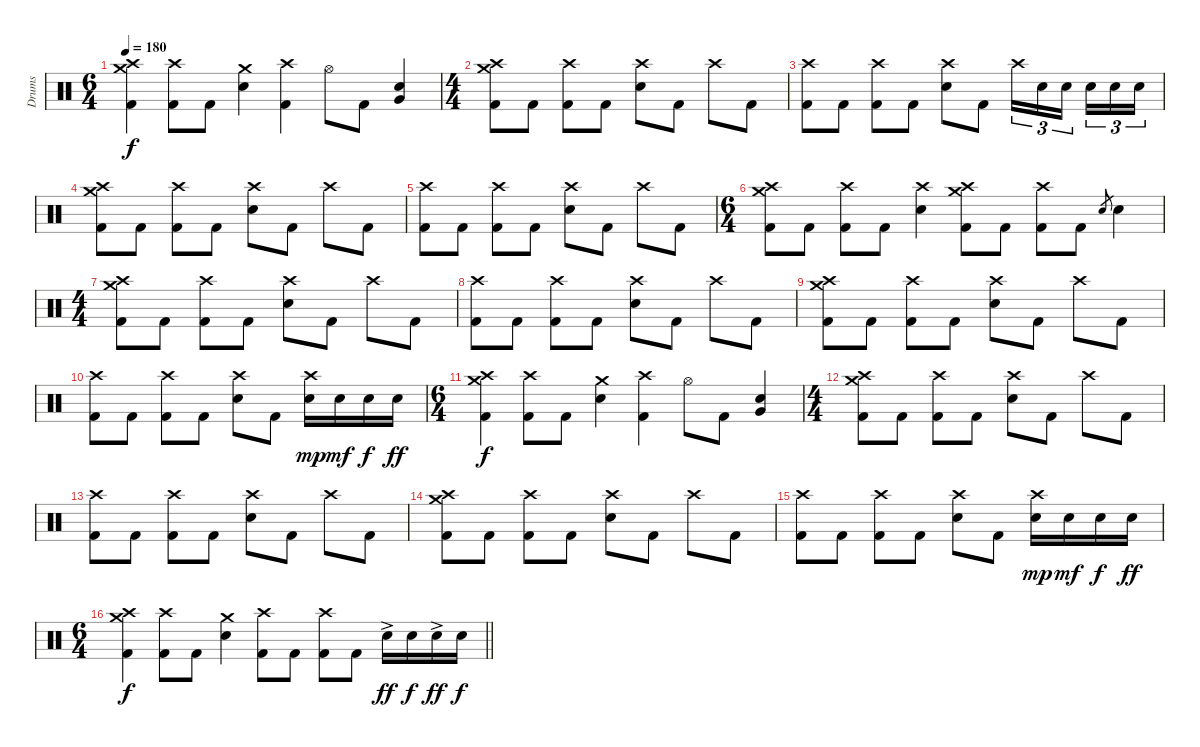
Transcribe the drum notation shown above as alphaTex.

\track ("Drums" "Drums") {instrument percussion}
\staff {score}
\articulation defaults
\ts (6 4)
\tempo 180
\clef neutral
\ks c
("Crash medium (hit)" "Crash high (hit)" "Kick (hit) 2").4{dy f} ("Crash high (hit)" "Kick (hit) 2").8 "Kick (hit) 2".8 ("Crash medium (hit)" "Electric Snare (hit)").4 ("Crash high (hit)" "Kick (hit) 2").4 "Hi-Hat (open)".8 "Kick (hit) 2".8 ("Very Low Tom (hit)" "Electric Snare (hit)").4{bu 120} |
\ts (4 4)
("Crash medium (hit)" "Crash high (hit)" "Kick (hit) 2").8 "Kick (hit) 2".8 ("Crash high (hit)" "Kick (hit) 2").8 "Kick (hit) 2".8 ("Crash high (hit)" "Electric Snare (hit)").8 "Kick (hit) 2".8 "Crash high (hit)".8 "Kick (hit) 2".8 |
("Crash high (hit)" "Kick (hit) 2").8 "Kick (hit) 2".8 ("Crash high (hit)" "Kick (hit) 2").8 "Kick (hit) 2".8 ("Crash high (hit)" "Electric Snare (hit)").8 "Kick (hit) 2".8 "Crash high (hit)".16{tu (3 2)} "Electric Snare (hit)".16{tu (3 2)} "Electric Snare (hit)".16{tu (3 2) beam splitsecondary} "Electric Snare (hit)".16{tu (3 2)} "Electric Snare (hit)".16{tu (3 2)} "Electric Snare (hit)".16{tu (3 2)} |
("Crash medium (hit)" "Crash high (hit)" "Kick (hit) 2").8 "Kick (hit) 2".8 ("Crash high (hit)" "Kick (hit) 2").8 "Kick (hit) 2".8 ("Crash high (hit)" "Electric Snare (hit)").8 "Kick (hit) 2".8 "Crash high (hit)".8 "Kick (hit) 2".8 |
("Crash high (hit)" "Kick (hit) 2").8 "Kick (hit) 2".8 ("Crash high (hit)" "Kick (hit) 2").8 "Kick (hit) 2".8 ("Crash high (hit)" "Electric Snare (hit)").8 "Kick (hit) 2".8 "Crash high (hit)".8 "Kick (hit) 2".8 |
\ts (6 4)
("Crash medium (hit)" "Crash high (hit)" "Kick (hit) 2").8 "Kick (hit) 2".8 ("Crash high (hit)" "Kick (hit) 2").8 "Kick (hit) 2".8 ("Crash high (hit)" "Electric Snare (hit)").4 ("Crash medium (hit)" "Crash high (hit)" "Kick (hit) 2").8 "Kick (hit) 2".8 ("Crash high (hit)" "Kick (hit) 2").8 "Kick (hit) 2".8 "Electric Snare (hit)".8{gr} "Electric Snare (hit)".4 |
\ts (4 4)
("Crash medium (hit)" "Crash high (hit)" "Kick (hit) 2").8 "Kick (hit) 2".8 ("Crash high (hit)" "Kick (hit) 2").8 "Kick (hit) 2".8 ("Crash high (hit)" "Electric Snare (hit)").8 "Kick (hit) 2".8 "Crash high (hit)".8 "Kick (hit) 2".8 |
("Crash high (hit)" "Kick (hit) 2").8 "Kick (hit) 2".8 ("Crash high (hit)" "Kick (hit) 2").8 "Kick (hit) 2".8 ("Crash high (hit)" "Electric Snare (hit)").8 "Kick (hit) 2".8 "Crash high (hit)".8 "Kick (hit) 2".8 |
("Crash medium (hit)" "Crash high (hit)" "Kick (hit) 2").8 "Kick (hit) 2".8 ("Crash high (hit)" "Kick (hit) 2").8 "Kick (hit) 2".8 ("Crash high (hit)" "Electric Snare (hit)").8 "Kick (hit) 2".8 "Crash high (hit)".8 "Kick (hit) 2".8 |
("Crash high (hit)" "Kick (hit) 2").8 "Kick (hit) 2".8 ("Crash high (hit)" "Kick (hit) 2").8 "Kick (hit) 2".8 ("Crash high (hit)" "Electric Snare (hit)").8 "Kick (hit) 2".8 ("Crash high (hit)" "Electric Snare (hit)").16{dy mp} "Electric Snare (hit)".16{dy mf} "Electric Snare (hit)".16{dy f} "Electric Snare (hit)".16{dy ff} |
\ts (6 4)
("Crash medium (hit)" "Crash high (hit)" "Kick (hit) 2").4{dy f} ("Crash high (hit)" "Kick (hit) 2").8 "Kick (hit) 2".8 ("Crash medium (hit)" "Electric Snare (hit)").4 ("Crash high (hit)" "Kick (hit) 2").4 "Hi-Hat (open)".8 "Kick (hit) 2".8 ("Very Low Tom (hit)" "Electric Snare (hit)").4{bu 120} |
\ts (4 4)
("Crash medium (hit)" "Crash high (hit)" "Kick (hit) 2").8 "Kick (hit) 2".8 ("Crash high (hit)" "Kick (hit) 2").8 "Kick (hit) 2".8 ("Crash high (hit)" "Electric Snare (hit)").8 "Kick (hit) 2".8 "Crash high (hit)".8 "Kick (hit) 2".8 |
("Crash high (hit)" "Kick (hit) 2").8 "Kick (hit) 2".8 ("Crash high (hit)" "Kick (hit) 2").8 "Kick (hit) 2".8 ("Crash high (hit)" "Electric Snare (hit)").8 "Kick (hit) 2".8 "Crash high (hit)".8 "Kick (hit) 2".8 |
("Crash medium (hit)" "Crash high (hit)" "Kick (hit) 2").8 "Kick (hit) 2".8 ("Crash high (hit)" "Kick (hit) 2").8 "Kick (hit) 2".8 ("Crash high (hit)" "Electric Snare (hit)").8 "Kick (hit) 2".8 "Crash high (hit)".8 "Kick (hit) 2".8 |
("Crash high (hit)" "Kick (hit) 2").8 "Kick (hit) 2".8 ("Crash high (hit)" "Kick (hit) 2").8 "Kick (hit) 2".8 ("Crash high (hit)" "Electric Snare (hit)").8 "Kick (hit) 2".8 ("Crash high (hit)" "Electric Snare (hit)").16{dy mp} "Electric Snare (hit)".16{dy mf} "Electric Snare (hit)".16{dy f} "Electric Snare (hit)".16{dy ff} |
\ts (6 4)
\barLineRight lightlight
("Crash medium (hit)" "Crash high (hit)" "Kick (hit) 2").4{dy f} ("Crash high (hit)" "Kick (hit) 2").8 "Kick (hit) 2".8 ("Crash medium (hit)" "Electric Snare (hit)").4 ("Crash high (hit)" "Kick (hit) 2").8 "Kick (hit) 2".8 ("Crash high (hit)" "Kick (hit) 2").8 "Kick (hit) 2".8 "Electric Snare (hit)"{ac}.16{dy ff} "Electric Snare (hit)".16{dy f} "Electric Snare (hit)"{ac}.16{dy ff} "Electric Snare (hit)".16{dy f}
